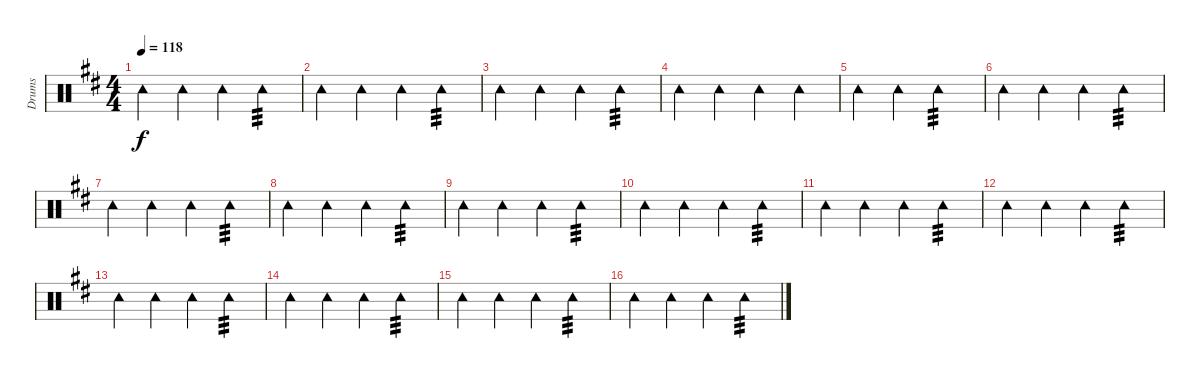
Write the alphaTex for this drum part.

\track ("Drums" "Drums") {instrument percussion}
\staff {score}
\articulation defaults
\ts (4 4)
\tempo 118
\clef neutral
\ks d "Tambourine (hit)".4{dy f} "Tambourine (hit)".4 "Tambourine (hit)".4 "Tambourine (hit)".4{tp 3}
|
"Tambourine (hit)".4 "Tambourine (hit)".4 "Tambourine (hit)".4 "Tambourine (hit)".4{tp 3} |
"Tambourine (hit)".4 "Tambourine (hit)".4 "Tambourine (hit)".4 "Tambourine (hit)".4{tp 3} |
"Tambourine (hit)".4 "Tambourine (hit)".4 "Tambourine (hit)".4 "Tambourine (hit)".4 |
"Tambourine (hit)".4 "Tambourine (hit)".4 "Tambourine (hit)".2{tp 3} |
"Tambourine (hit)".4 "Tambourine (hit)".4 "Tambourine (hit)".4 "Tambourine (hit)".4{tp 3} |
"Tambourine (hit)".4 "Tambourine (hit)".4 "Tambourine (hit)".4 "Tambourine (hit)".4{tp 3} |
"Tambourine (hit)".4 "Tambourine (hit)".4 "Tambourine (hit)".4 "Tambourine (hit)".4{tp 3} |
"Tambourine (hit)".4 "Tambourine (hit)".4 "Tambourine (hit)".4 "Tambourine (hit)".4{tp 3} |
"Tambourine (hit)".4 "Tambourine (hit)".4 "Tambourine (hit)".4 "Tambourine (hit)".4{tp 3} |
"Tambourine (hit)".4 "Tambourine (hit)".4 "Tambourine (hit)".4 "Tambourine (hit)".4{tp 3} |
"Tambourine (hit)".4 "Tambourine (hit)".4 "Tambourine (hit)".4 "Tambourine (hit)".4{tp 3} |
"Tambourine (hit)".4 "Tambourine (hit)".4 "Tambourine (hit)".4 "Tambourine (hit)".4{tp 3} |
"Tambourine (hit)".4 "Tambourine (hit)".4 "Tambourine (hit)".4 "Tambourine (hit)".4{tp 3} |
"Tambourine (hit)".4 "Tambourine (hit)".4 "Tambourine (hit)".4 "Tambourine (hit)".4{tp 3} |
"Tambourine (hit)".4 "Tambourine (hit)".4 "Tambourine (hit)".4 "Tambourine (hit)".4{tp 3}
